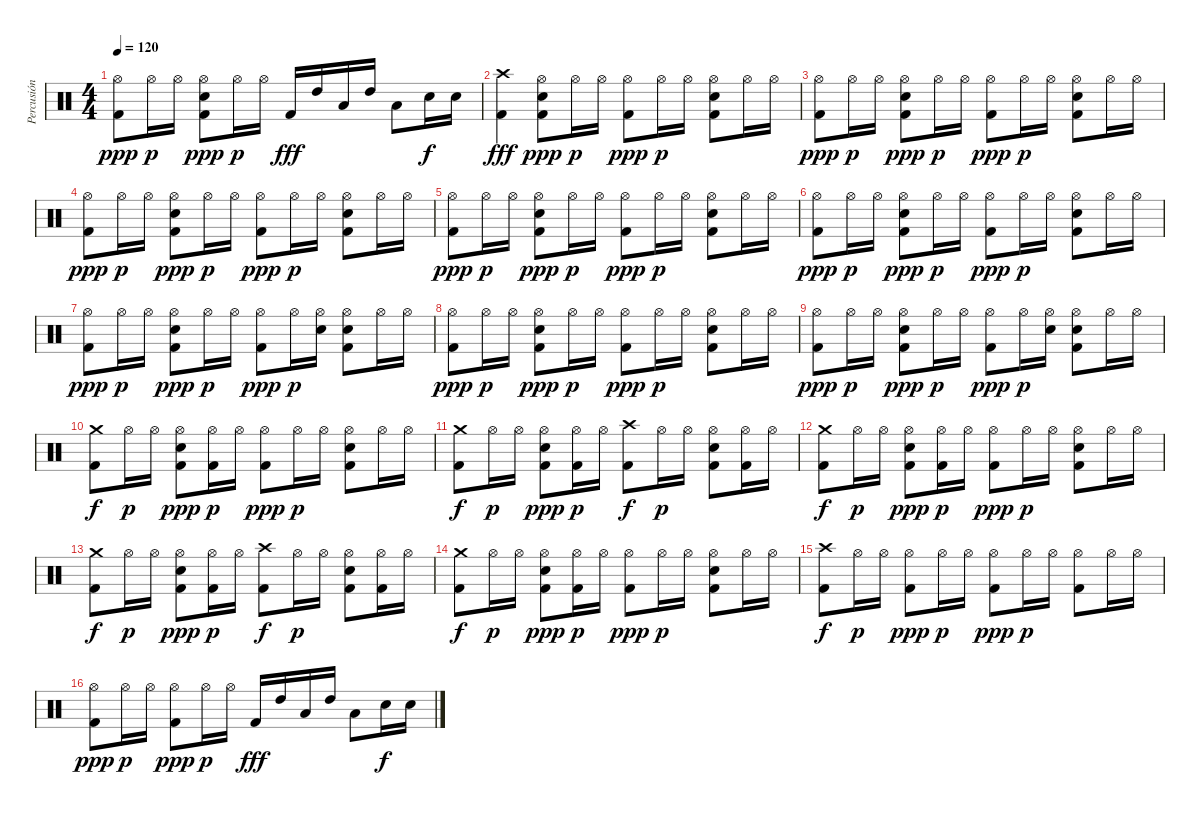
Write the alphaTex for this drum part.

\track ("Percusión" "Percusión") {instrument percussion}
\staff {score}
\articulation defaults
\ts (4 4)
\tempo 120
\clef neutral
\ks c
("Hi-Hat (open)" "Kick (hit) 2").8{dy ppp} "Hi-Hat (open)".16{dy p} "Hi-Hat (open)".16 ("Hi-Hat (open)" "Kick (hit) 2" "Snare (hit) 2").8{dy ppp} "Hi-Hat (open)".16{dy p} "Hi-Hat (open)".16 "Kick (hit) 2".16{dy fff} "High Tom (hit)".16 "Low Tom (hit)".16 "High Tom (hit)".16 "Low Tom (hit)".8 "Snare (hit) 2".16{dy f} "Snare (hit) 2".16 |
("Crash high (hit)" "Kick (hit) 2").4{dy fff} ("Hi-Hat (open)" "Kick (hit) 2" "Snare (hit) 2").8{dy ppp} "Hi-Hat (open)".16{dy p} "Hi-Hat (open)".16 ("Hi-Hat (open)" "Kick (hit) 2").8{dy ppp} "Hi-Hat (open)".16{dy p} "Hi-Hat (open)".16 ("Hi-Hat (open)" "Kick (hit) 2" "Snare (hit) 2").8 "Hi-Hat (open)".16 "Hi-Hat (open)".16 |
("Hi-Hat (open)" "Kick (hit) 2").8{dy ppp} "Hi-Hat (open)".16{dy p} "Hi-Hat (open)".16 ("Hi-Hat (open)" "Kick (hit) 2" "Snare (hit) 2").8{dy ppp} "Hi-Hat (open)".16{dy p} "Hi-Hat (open)".16 ("Hi-Hat (open)" "Kick (hit) 2").8{dy ppp} "Hi-Hat (open)".16{dy p} "Hi-Hat (open)".16 ("Hi-Hat (open)" "Kick (hit) 2" "Snare (hit) 2").8 "Hi-Hat (open)".16 "Hi-Hat (open)".16 |
("Hi-Hat (open)" "Kick (hit) 2").8{dy ppp} "Hi-Hat (open)".16{dy p} "Hi-Hat (open)".16 ("Hi-Hat (open)" "Kick (hit) 2" "Snare (hit) 2").8{dy ppp} "Hi-Hat (open)".16{dy p} "Hi-Hat (open)".16 ("Hi-Hat (open)" "Kick (hit) 2").8{dy ppp} "Hi-Hat (open)".16{dy p} "Hi-Hat (open)".16 ("Hi-Hat (open)" "Kick (hit) 2" "Snare (hit) 2").8 "Hi-Hat (open)".16 "Hi-Hat (open)".16 |
("Hi-Hat (open)" "Kick (hit) 2").8{dy ppp} "Hi-Hat (open)".16{dy p} "Hi-Hat (open)".16 ("Hi-Hat (open)" "Kick (hit) 2" "Snare (hit) 2").8{dy ppp} "Hi-Hat (open)".16{dy p} "Hi-Hat (open)".16 ("Hi-Hat (open)" "Kick (hit) 2").8{dy ppp} "Hi-Hat (open)".16{dy p} "Hi-Hat (open)".16 ("Hi-Hat (open)" "Kick (hit) 2" "Snare (hit) 2").8 "Hi-Hat (open)".16 "Hi-Hat (open)".16 |
("Hi-Hat (open)" "Kick (hit) 2").8{dy ppp} "Hi-Hat (open)".16{dy p} "Hi-Hat (open)".16 ("Hi-Hat (open)" "Kick (hit) 2" "Snare (hit) 2").8{dy ppp} "Hi-Hat (open)".16{dy p} "Hi-Hat (open)".16 ("Hi-Hat (open)" "Kick (hit) 2").8{dy ppp} "Hi-Hat (open)".16{dy p} "Hi-Hat (open)".16 ("Hi-Hat (open)" "Kick (hit) 2" "Snare (hit) 2").8 "Hi-Hat (open)".16 "Hi-Hat (open)".16 |
("Hi-Hat (open)" "Kick (hit) 2").8{dy ppp} "Hi-Hat (open)".16{dy p} "Hi-Hat (open)".16 ("Hi-Hat (open)" "Kick (hit) 2" "Snare (hit) 2").8{dy ppp} "Hi-Hat (open)".16{dy p} "Hi-Hat (open)".16 ("Hi-Hat (open)" "Kick (hit) 2").8{dy ppp} "Hi-Hat (open)".16{dy p} ("Hi-Hat (open)" "Snare (hit) 2").16 ("Hi-Hat (open)" "Kick (hit) 2" "Snare (hit) 2").8 "Hi-Hat (open)".16 "Hi-Hat (open)".16 |
("Hi-Hat (open)" "Kick (hit) 2").8{dy ppp} "Hi-Hat (open)".16{dy p} "Hi-Hat (open)".16 ("Hi-Hat (open)" "Kick (hit) 2" "Snare (hit) 2").8{dy ppp} "Hi-Hat (open)".16{dy p} "Hi-Hat (open)".16 ("Hi-Hat (open)" "Kick (hit) 2").8{dy ppp} "Hi-Hat (open)".16{dy p} "Hi-Hat (open)".16 ("Hi-Hat (open)" "Kick (hit) 2" "Snare (hit) 2").8 "Hi-Hat (open)".16 "Hi-Hat (open)".16 |
("Hi-Hat (open)" "Kick (hit) 2").8{dy ppp} "Hi-Hat (open)".16{dy p} "Hi-Hat (open)".16 ("Hi-Hat (open)" "Kick (hit) 2" "Snare (hit) 2").8{dy ppp} "Hi-Hat (open)".16{dy p} "Hi-Hat (open)".16 ("Hi-Hat (open)" "Kick (hit) 2").8{dy ppp} "Hi-Hat (open)".16{dy p} ("Hi-Hat (open)" "Snare (hit) 2").16 ("Hi-Hat (open)" "Kick (hit) 2" "Snare (hit) 2").8 "Hi-Hat (open)".16 "Hi-Hat (open)".16 |
("Crash medium (hit)" "Kick (hit) 2").8{dy f} "Hi-Hat (open)".16{dy p} "Hi-Hat (open)".16 ("Hi-Hat (open)" "Kick (hit) 2" "Snare (hit) 2").8{dy ppp} ("Hi-Hat (open)" "Kick (hit) 2").16{dy p} "Hi-Hat (open)".16 ("Hi-Hat (open)" "Kick (hit) 2").8{dy ppp} "Hi-Hat (open)".16{dy p} "Hi-Hat (open)".16 ("Hi-Hat (open)" "Kick (hit) 2" "Snare (hit) 2").8 "Hi-Hat (open)".16 "Hi-Hat (open)".16 |
("Crash medium (hit)" "Kick (hit) 2").8{dy f} "Hi-Hat (open)".16{dy p} "Hi-Hat (open)".16 ("Hi-Hat (open)" "Kick (hit) 2" "Snare (hit) 2").8{dy ppp} ("Hi-Hat (open)" "Kick (hit) 2").16{dy p} "Hi-Hat (open)".16 ("Crash high (hit)" "Kick (hit) 2").8{dy f} "Hi-Hat (open)".16{dy p} "Hi-Hat (open)".16 ("Hi-Hat (open)" "Kick (hit) 2" "Snare (hit) 2").8 ("Hi-Hat (open)" "Kick (hit) 2").16 "Hi-Hat (open)".16 |
("Crash medium (hit)" "Kick (hit) 2").8{dy f} "Hi-Hat (open)".16{dy p} "Hi-Hat (open)".16 ("Hi-Hat (open)" "Kick (hit) 2" "Snare (hit) 2").8{dy ppp} ("Hi-Hat (open)" "Kick (hit) 2").16{dy p} "Hi-Hat (open)".16 ("Hi-Hat (open)" "Kick (hit) 2").8{dy ppp} "Hi-Hat (open)".16{dy p} "Hi-Hat (open)".16 ("Hi-Hat (open)" "Kick (hit) 2" "Snare (hit) 2").8 "Hi-Hat (open)".16 "Hi-Hat (open)".16 |
("Crash medium (hit)" "Kick (hit) 2").8{dy f} "Hi-Hat (open)".16{dy p} "Hi-Hat (open)".16 ("Hi-Hat (open)" "Kick (hit) 2" "Snare (hit) 2").8{dy ppp} ("Hi-Hat (open)" "Kick (hit) 2").16{dy p} "Hi-Hat (open)".16 ("Crash high (hit)" "Kick (hit) 2").8{dy f} "Hi-Hat (open)".16{dy p} "Hi-Hat (open)".16 ("Hi-Hat (open)" "Kick (hit) 2" "Snare (hit) 2").8 ("Hi-Hat (open)" "Kick (hit) 2").16 "Hi-Hat (open)".16 |
("Crash medium (hit)" "Kick (hit) 2").8{dy f} "Hi-Hat (open)".16{dy p} "Hi-Hat (open)".16 ("Hi-Hat (open)" "Kick (hit) 2" "Snare (hit) 2").8{dy ppp} ("Hi-Hat (open)" "Kick (hit) 2").16{dy p} "Hi-Hat (open)".16 ("Hi-Hat (open)" "Kick (hit) 2").8{dy ppp} "Hi-Hat (open)".16{dy p} "Hi-Hat (open)".16 ("Hi-Hat (open)" "Kick (hit) 2" "Snare (hit) 2").8 "Hi-Hat (open)".16 "Hi-Hat (open)".16 |
("Crash high (hit)" "Kick (hit) 2").8{dy f} "Hi-Hat (open)".16{dy p} "Hi-Hat (open)".16 ("Hi-Hat (open)" "Kick (hit) 2").8{dy ppp} "Hi-Hat (open)".16{dy p} "Hi-Hat (open)".16 ("Hi-Hat (open)" "Kick (hit) 2").8{dy ppp} "Hi-Hat (open)".16{dy p} "Hi-Hat (open)".16 ("Hi-Hat (open)" "Kick (hit) 2").8 "Hi-Hat (open)".16 "Hi-Hat (open)".16 |
("Hi-Hat (open)" "Kick (hit) 2").8{dy ppp} "Hi-Hat (open)".16{dy p} "Hi-Hat (open)".16 ("Hi-Hat (open)" "Kick (hit) 2").8{dy ppp} "Hi-Hat (open)".16{dy p} "Hi-Hat (open)".16 "Kick (hit) 2".16{dy fff} "High Tom (hit)".16 "Low Tom (hit)".16 "High Tom (hit)".16 "Low Tom (hit)".8 "Snare (hit) 2".16{dy f} "Snare (hit) 2".16
